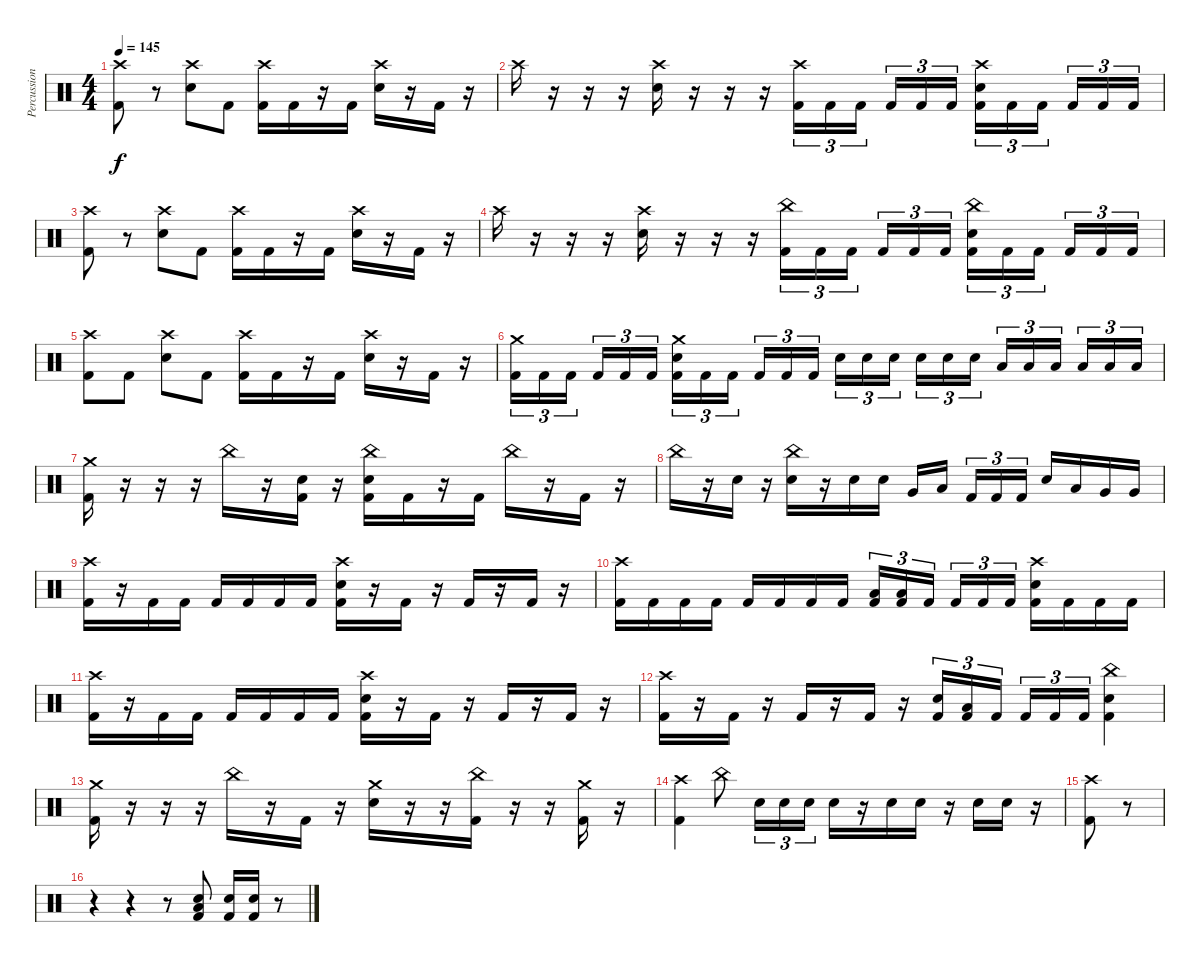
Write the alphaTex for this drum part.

\track ("Percussion" "Percussion") {instrument percussion}
\staff {score}
\articulation defaults
\ts (4 4)
\tempo 145
\clef neutral
\ks c
("Crash high (hit)" "Kick (hit) 2").8{dy f} r.8 ("Crash high (hit)" "Electric Snare (hit)").8 "Kick (hit) 2".8 ("Crash high (hit)" "Kick (hit) 2").16 "Kick (hit) 2".16 r.16 "Kick (hit) 2".16 ("Crash high (hit)" "Electric Snare (hit)").16 r.16 "Kick (hit) 2".16 r.16 |
"Crash high (hit)".16 r.16 r.16 r.16 ("Crash high (hit)" "Electric Snare (hit)").16 r.16 r.16 r.16 ("Crash high (hit)" "Kick (hit) 2").16{tu (3 2)} "Kick (hit) 2".16{tu (3 2)} "Kick (hit) 2".16{tu (3 2) beam splitsecondary} "Kick (hit) 2".16{tu (3 2)} "Kick (hit) 2".16{tu (3 2)} "Kick (hit) 2".16{tu (3 2)} ("Crash high (hit)" "Electric Snare (hit)" "Kick (hit) 2").16{tu (3 2)} "Kick (hit) 2".16{tu (3 2)} "Kick (hit) 2".16{tu (3 2) beam splitsecondary} "Kick (hit) 2".16{tu (3 2)} "Kick (hit) 2".16{tu (3 2)} "Kick (hit) 2".16{tu (3 2)} |
("Crash high (hit)" "Kick (hit) 2").8 r.8 ("Crash high (hit)" "Electric Snare (hit)").8 "Kick (hit) 2".8 ("Crash high (hit)" "Kick (hit) 2").16 "Kick (hit) 2".16 r.16 "Kick (hit) 2".16 ("Crash high (hit)" "Electric Snare (hit)").16 r.16 "Kick (hit) 2".16 r.16 |
"Crash high (hit)".16 r.16 r.16 r.16 ("Crash high (hit)" "Electric Snare (hit)").16 r.16 r.16 r.16 ("China (hit)" "Kick (hit) 2").16{tu (3 2)} "Kick (hit) 2".16{tu (3 2)} "Kick (hit) 2".16{tu (3 2) beam splitsecondary} "Kick (hit) 2".16{tu (3 2)} "Kick (hit) 2".16{tu (3 2)} "Kick (hit) 2".16{tu (3 2)} ("China (hit)" "Electric Snare (hit)" "Kick (hit) 2").16{tu (3 2)} "Kick (hit) 2".16{tu (3 2)} "Kick (hit) 2".16{tu (3 2) beam splitsecondary} "Kick (hit) 2".16{tu (3 2)} "Kick (hit) 2".16{tu (3 2)} "Kick (hit) 2".16{tu (3 2)} |
("Crash high (hit)" "Kick (hit) 2").8 "Kick (hit) 2".8 ("Crash high (hit)" "Electric Snare (hit)").8 "Kick (hit) 2".8 ("Crash high (hit)" "Kick (hit) 2").16 "Kick (hit) 2".16 r.16 "Kick (hit) 2".16 ("Crash high (hit)" "Electric Snare (hit)").16 r.16 "Kick (hit) 2".16 r.16 |
("Crash medium (hit)" "Kick (hit) 2").16{tu (3 2)} "Kick (hit) 2".16{tu (3 2)} "Kick (hit) 2".16{tu (3 2) beam splitsecondary} "Kick (hit) 2".16{tu (3 2)} "Kick (hit) 2".16{tu (3 2)} "Kick (hit) 2".16{tu (3 2)} ("Crash medium (hit)" "Electric Snare (hit)" "Kick (hit) 2").16{tu (3 2)} "Kick (hit) 2".16{tu (3 2)} "Kick (hit) 2".16{tu (3 2) beam splitsecondary} "Kick (hit) 2".16{tu (3 2)} "Kick (hit) 2".16{tu (3 2)} "Kick (hit) 2".16{tu (3 2)} "Electric Snare (hit)".16{tu (3 2)} "Electric Snare (hit)".16{tu (3 2)} "Electric Snare (hit)".16{tu (3 2) beam splitsecondary} "Electric Snare (hit)".16{tu (3 2)} "Electric Snare (hit)".16{tu (3 2)} "Electric Snare (hit)".16{tu (3 2)} "Low Tom (hit)".16{tu (3 2)} "Low Tom (hit)".16{tu (3 2)} "Low Tom (hit)".16{tu (3 2) beam splitsecondary} "Low Tom (hit)".16{tu (3 2)} "Low Tom (hit)".16{tu (3 2)} "Low Tom (hit)".16{tu (3 2)} |
("Crash medium (hit)" "Kick (hit) 2").16 r.16 r.16 r.16 "China (hit)".16 r.16 ("Electric Snare (hit)" "Kick (hit) 2").16 r.16 ("China (hit)" "Electric Snare (hit)" "Kick (hit) 2").16 "Kick (hit) 2".16 r.16 "Kick (hit) 2".16 "China (hit)".16 r.16 "Kick (hit) 2".16 r.16 |
"China (hit)".16 r.16 "Electric Snare (hit)".16 r.16 ("China (hit)" "Electric Snare (hit)").16 r.16 "Electric Snare (hit)".16 "Electric Snare (hit)".16 "Very Low Tom (hit)".16 "Low Tom (hit)".16{beam splitsecondary} "Kick (hit) 2".16{tu (3 2)} "Kick (hit) 2".16{tu (3 2)} "Kick (hit) 2".16{tu (3 2)} "Electric Snare (hit)".16 "Low Tom (hit)".16 "Very Low Tom (hit)".16 "Very Low Tom (hit)".16 |
("Crash high (hit)" "Kick (hit) 2").16 r.16 "Kick (hit) 2".16 "Kick (hit) 2".16 "Kick (hit) 2".16 "Kick (hit) 2".16 "Kick (hit) 2".16 "Kick (hit) 2".16 ("Crash high (hit)" "Electric Snare (hit)" "Kick (hit) 2").16 r.16 "Kick (hit) 2".16 r.16 "Kick (hit) 2".16 r.16 "Kick (hit) 2".16 r.16 |
("Crash high (hit)" "Kick (hit) 2").16 "Kick (hit) 2".16 "Kick (hit) 2".16 "Kick (hit) 2".16 "Kick (hit) 2".16 "Kick (hit) 2".16 "Kick (hit) 2".16 "Kick (hit) 2".16 ("Low Tom (hit)" "Kick (hit) 2").16{tu (3 2)} ("Low Tom (hit)" "Kick (hit) 2").16{tu (3 2)} "Kick (hit) 2".16{tu (3 2) beam splitsecondary} "Kick (hit) 2".16{tu (3 2)} "Kick (hit) 2".16{tu (3 2)} "Kick (hit) 2".16{tu (3 2)} ("Crash high (hit)" "Electric Snare (hit)" "Kick (hit) 2").16 "Kick (hit) 2".16 "Kick (hit) 2".16 "Kick (hit) 2".16 |
("Crash high (hit)" "Kick (hit) 2").16 r.16 "Kick (hit) 2".16 "Kick (hit) 2".16 "Kick (hit) 2".16 "Kick (hit) 2".16 "Kick (hit) 2".16 "Kick (hit) 2".16 ("Crash high (hit)" "Electric Snare (hit)" "Kick (hit) 2").16 r.16 "Kick (hit) 2".16 r.16 "Kick (hit) 2".16 r.16 "Kick (hit) 2".16 r.16 |
("Crash high (hit)" "Kick (hit) 2").16 r.16 "Kick (hit) 2".16 r.16 "Kick (hit) 2".16 r.16 "Kick (hit) 2".16 r.16 ("Electric Snare (hit)" "Kick (hit) 2").16{tu (3 2)} ("Low Tom (hit)" "Kick (hit) 2").16{tu (3 2)} "Kick (hit) 2".16{tu (3 2) beam splitsecondary} "Kick (hit) 2".16{tu (3 2)} "Kick (hit) 2".16{tu (3 2)} "Kick (hit) 2".16{tu (3 2)} ("China (hit)" "Electric Snare (hit)" "Kick (hit) 2").4 |
("Crash medium (hit)" "Kick (hit) 2").16 r.16 r.16 r.16 "China (hit)".16 r.16 "Kick (hit) 2".16 r.16 ("Crash medium (hit)" "Electric Snare (hit)").16 r.16 r.16 ("China (hit)" "Kick (hit) 2").16 r.16 r.16 ("Crash medium (hit)" "Kick (hit) 2").16 r.16 |
("Crash high (hit)" "Kick (hit) 2").4 "China (hit)".8 "Electric Snare (hit)".16{tu (3 2)} "Electric Snare (hit)".16{tu (3 2)} "Electric Snare (hit)".16{tu (3 2)} "Electric Snare (hit)".16 r.16 "Electric Snare (hit)".16 "Electric Snare (hit)".16 r.16 "Electric Snare (hit)".16 "Electric Snare (hit)".16 r.16 |
("Crash high (hit)" "Kick (hit) 2").8 r.8{volume 0} |
r.4 r.4{volume 13} r.8 ("Electric Snare (hit)" "Low Floor Tom (hit)" "Kick (hit) 2").8 ("Electric Snare (hit)" "Kick (hit) 2").16 ("Electric Snare (hit)" "Kick (hit) 2").16 r.8
